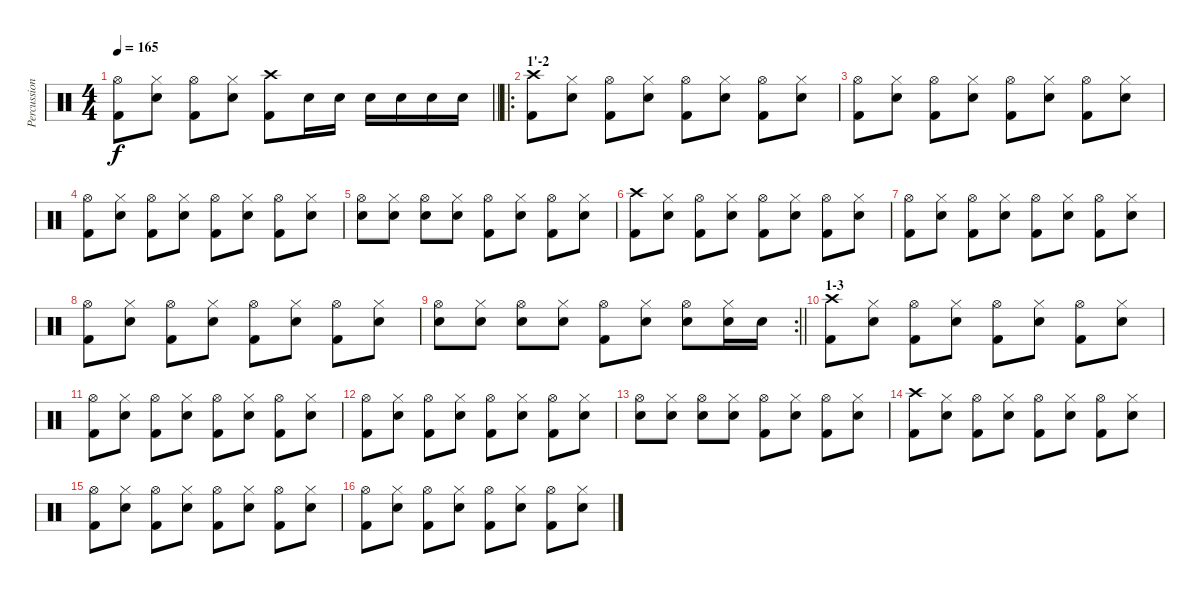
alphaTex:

\track ("Percussion" "Percussion") {instrument percussion}
\staff {score}
\articulation defaults
\ts (4 4)
\tempo 165
\clef neutral
\barLineRight lightlight
\ks c
("Hi-Hat (open)" "Kick (hit) 2").8{dy f} ("Hi-Hat (closed)" "Snare (hit) 2").8 ("Hi-Hat (open)" "Kick (hit) 2").8 ("Hi-Hat (closed)" "Snare (hit) 2").8 ("Crash high (hit)" "Kick (hit) 2").8 "Snare (hit) 2".16 "Snare (hit) 2".16 "Snare (hit) 2".16 "Snare (hit) 2".16 "Snare (hit) 2".16 "Snare (hit) 2".16 |
\ro
\section ("" "1'-2")
("Crash high (hit)" "Kick (hit) 2").8 ("Hi-Hat (closed)" "Snare (hit) 2").8 ("Hi-Hat (open)" "Kick (hit) 2").8 ("Hi-Hat (closed)" "Snare (hit) 2").8 ("Hi-Hat (open)" "Kick (hit) 2").8 ("Hi-Hat (closed)" "Snare (hit) 2").8 ("Hi-Hat (open)" "Kick (hit) 2").8 ("Hi-Hat (closed)" "Snare (hit) 2").8 |
("Hi-Hat (open)" "Kick (hit) 2").8 ("Hi-Hat (closed)" "Snare (hit) 2").8 ("Hi-Hat (open)" "Kick (hit) 2").8 ("Hi-Hat (closed)" "Snare (hit) 2").8 ("Hi-Hat (open)" "Kick (hit) 2").8 ("Hi-Hat (closed)" "Snare (hit) 2").8 ("Hi-Hat (open)" "Kick (hit) 2").8 ("Hi-Hat (closed)" "Snare (hit) 2").8 |
("Hi-Hat (open)" "Kick (hit) 2").8 ("Hi-Hat (closed)" "Snare (hit) 2").8 ("Hi-Hat (open)" "Kick (hit) 2").8 ("Hi-Hat (closed)" "Snare (hit) 2").8 ("Hi-Hat (open)" "Kick (hit) 2").8 ("Hi-Hat (closed)" "Snare (hit) 2").8 ("Hi-Hat (open)" "Kick (hit) 2").8 ("Hi-Hat (closed)" "Snare (hit) 2").8 |
("Hi-Hat (open)" "Snare (hit) 2").8 ("Hi-Hat (closed)" "Snare (hit) 2").8 ("Hi-Hat (open)" "Snare (hit) 2").8 ("Hi-Hat (closed)" "Snare (hit) 2").8 ("Hi-Hat (open)" "Kick (hit) 2").8 ("Hi-Hat (closed)" "Snare (hit) 2").8 ("Hi-Hat (open)" "Kick (hit) 2").8 ("Hi-Hat (closed)" "Snare (hit) 2").8 |
("Crash high (hit)" "Kick (hit) 2").8 ("Hi-Hat (closed)" "Snare (hit) 2").8 ("Hi-Hat (open)" "Kick (hit) 2").8 ("Hi-Hat (closed)" "Snare (hit) 2").8 ("Hi-Hat (open)" "Kick (hit) 2").8 ("Hi-Hat (closed)" "Snare (hit) 2").8 ("Hi-Hat (open)" "Kick (hit) 2").8 ("Hi-Hat (closed)" "Snare (hit) 2").8 |
("Hi-Hat (open)" "Kick (hit) 2").8 ("Hi-Hat (closed)" "Snare (hit) 2").8 ("Hi-Hat (open)" "Kick (hit) 2").8 ("Hi-Hat (closed)" "Snare (hit) 2").8 ("Hi-Hat (open)" "Kick (hit) 2").8 ("Hi-Hat (closed)" "Snare (hit) 2").8 ("Hi-Hat (open)" "Kick (hit) 2").8 ("Hi-Hat (closed)" "Snare (hit) 2").8 |
("Hi-Hat (open)" "Kick (hit) 2").8 ("Hi-Hat (closed)" "Snare (hit) 2").8 ("Hi-Hat (open)" "Kick (hit) 2").8 ("Hi-Hat (closed)" "Snare (hit) 2").8 ("Hi-Hat (open)" "Kick (hit) 2").8 ("Hi-Hat (closed)" "Snare (hit) 2").8 ("Hi-Hat (open)" "Kick (hit) 2").8 ("Hi-Hat (closed)" "Snare (hit) 2").8 |
\rc 2
\barLineRight lightlight
("Hi-Hat (open)" "Snare (hit) 2").8 ("Hi-Hat (closed)" "Snare (hit) 2").8 ("Hi-Hat (open)" "Snare (hit) 2").8 ("Hi-Hat (closed)" "Snare (hit) 2").8 ("Hi-Hat (open)" "Kick (hit) 2").8 ("Hi-Hat (closed)" "Snare (hit) 2").8 ("Hi-Hat (open)" "Snare (hit) 2").8 ("Hi-Hat (closed)" "Snare (hit) 2").16 "Snare (hit) 2".16 |
\section ("" "1-3")
("Crash high (hit)" "Kick (hit) 2").8 ("Hi-Hat (closed)" "Snare (hit) 2").8 ("Hi-Hat (open)" "Kick (hit) 2").8 ("Hi-Hat (closed)" "Snare (hit) 2").8 ("Hi-Hat (open)" "Kick (hit) 2").8 ("Hi-Hat (closed)" "Snare (hit) 2").8 ("Hi-Hat (open)" "Kick (hit) 2").8 ("Hi-Hat (closed)" "Snare (hit) 2").8 |
("Hi-Hat (open)" "Kick (hit) 2").8 ("Hi-Hat (closed)" "Snare (hit) 2").8 ("Hi-Hat (open)" "Kick (hit) 2").8 ("Hi-Hat (closed)" "Snare (hit) 2").8 ("Hi-Hat (open)" "Kick (hit) 2").8 ("Hi-Hat (closed)" "Snare (hit) 2").8 ("Hi-Hat (open)" "Kick (hit) 2").8 ("Hi-Hat (closed)" "Snare (hit) 2").8 |
("Hi-Hat (open)" "Kick (hit) 2").8 ("Hi-Hat (closed)" "Snare (hit) 2").8 ("Hi-Hat (open)" "Kick (hit) 2").8 ("Hi-Hat (closed)" "Snare (hit) 2").8 ("Hi-Hat (open)" "Kick (hit) 2").8 ("Hi-Hat (closed)" "Snare (hit) 2").8 ("Hi-Hat (open)" "Kick (hit) 2").8 ("Hi-Hat (closed)" "Snare (hit) 2").8 |
("Hi-Hat (open)" "Snare (hit) 2").8 ("Hi-Hat (closed)" "Snare (hit) 2").8 ("Hi-Hat (open)" "Snare (hit) 2").8 ("Hi-Hat (closed)" "Snare (hit) 2").8 ("Hi-Hat (open)" "Kick (hit) 2").8 ("Hi-Hat (closed)" "Snare (hit) 2").8 ("Hi-Hat (open)" "Kick (hit) 2").8 ("Hi-Hat (closed)" "Snare (hit) 2").8 |
("Crash high (hit)" "Kick (hit) 2").8 ("Hi-Hat (closed)" "Snare (hit) 2").8 ("Hi-Hat (open)" "Kick (hit) 2").8 ("Hi-Hat (closed)" "Snare (hit) 2").8 ("Hi-Hat (open)" "Kick (hit) 2").8 ("Hi-Hat (closed)" "Snare (hit) 2").8 ("Hi-Hat (open)" "Kick (hit) 2").8 ("Hi-Hat (closed)" "Snare (hit) 2").8 |
("Hi-Hat (open)" "Kick (hit) 2").8 ("Hi-Hat (closed)" "Snare (hit) 2").8 ("Hi-Hat (open)" "Kick (hit) 2").8 ("Hi-Hat (closed)" "Snare (hit) 2").8 ("Hi-Hat (open)" "Kick (hit) 2").8 ("Hi-Hat (closed)" "Snare (hit) 2").8 ("Hi-Hat (open)" "Kick (hit) 2").8 ("Hi-Hat (closed)" "Snare (hit) 2").8 |
("Hi-Hat (open)" "Kick (hit) 2").8 ("Hi-Hat (closed)" "Snare (hit) 2").8 ("Hi-Hat (open)" "Kick (hit) 2").8 ("Hi-Hat (closed)" "Snare (hit) 2").8 ("Hi-Hat (open)" "Kick (hit) 2").8 ("Hi-Hat (closed)" "Snare (hit) 2").8 ("Hi-Hat (open)" "Kick (hit) 2").8 ("Hi-Hat (closed)" "Snare (hit) 2").8
